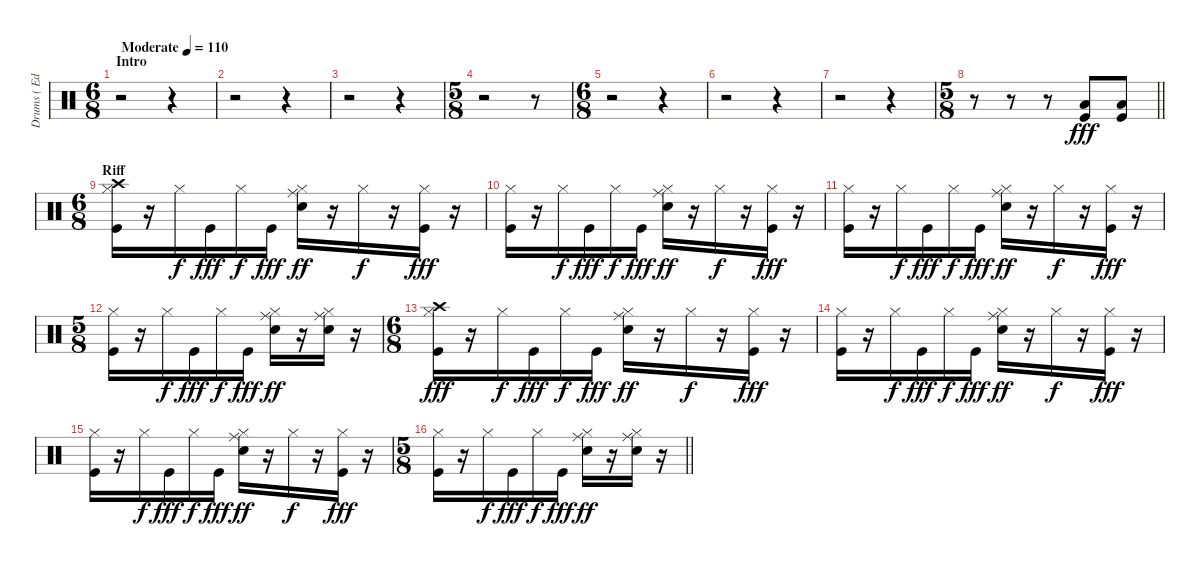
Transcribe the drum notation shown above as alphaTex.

\track ("Drums ( Edward O'Brien )" "Drums ( Ed") {instrument percussion}
\staff {score}
\articulation defaults
\ts (6 8)
\section ("" "Intro")
\tempo (110 "Moderate")
\clef neutral
\ks c
r.2{dy fff} r.4 |
r.2 r.4 |
r.2 r.4 |
\ts (5 8)
r.2 r.8 |
\ts (6 8)
r.2 r.4 |
r.2 r.4 |
r.2 r.4 |
\ts (5 8)
\barLineRight lightlight
r.8 r.8 r.8 ("Low Floor Tom (hit)" "Kick (hit)").8 ("Low Floor Tom (hit)" "Kick (hit)").8 |
\ts (6 8)
\section ("" "Riff")
("Crash high (hit)" "Hi-Hat (closed)" "Kick (hit)").16 r.16 "Hi-Hat (closed)".16{dy f} "Kick (hit)".16{dy fff} "Hi-Hat (closed)".16{dy f} "Kick (hit)".16{dy fff} ("Ride (middle)" "Hi-Hat (closed)" "Electric Snare (hit)").16{dy ff} r.16 "Hi-Hat (closed)".16{dy f} r.16 ("Hi-Hat (closed)" "Kick (hit)").16{dy fff} r.16 |
("Hi-Hat (closed)" "Kick (hit)").16 r.16 "Hi-Hat (closed)".16{dy f} "Kick (hit)".16{dy fff} "Hi-Hat (closed)".16{dy f} "Kick (hit)".16{dy fff} ("Ride (middle)" "Hi-Hat (closed)" "Electric Snare (hit)").16{dy ff} r.16 "Hi-Hat (closed)".16{dy f} r.16 ("Hi-Hat (closed)" "Kick (hit)").16{dy fff} r.16 |
("Hi-Hat (closed)" "Kick (hit)").16 r.16 "Hi-Hat (closed)".16{dy f} "Kick (hit)".16{dy fff} "Hi-Hat (closed)".16{dy f} "Kick (hit)".16{dy fff} ("Ride (middle)" "Hi-Hat (closed)" "Electric Snare (hit)").16{dy ff} r.16 "Hi-Hat (closed)".16{dy f} r.16 ("Hi-Hat (closed)" "Kick (hit)").16{dy fff} r.16 |
\ts (5 8)
("Hi-Hat (closed)" "Kick (hit)").16 r.16 "Hi-Hat (closed)".16{dy f} "Kick (hit)".16{dy fff} "Hi-Hat (closed)".16{dy f} "Kick (hit)".16{dy fff} ("Ride (middle)" "Hi-Hat (closed)" "Electric Snare (hit)").16{dy ff} r.16 ("Ride (middle)" "Hi-Hat (closed)" "Electric Snare (hit)").16 r.16 |
\ts (6 8)
("Crash high (hit)" "Hi-Hat (closed)" "Kick (hit)").16{dy fff} r.16 "Hi-Hat (closed)".16{dy f} "Kick (hit)".16{dy fff} "Hi-Hat (closed)".16{dy f} "Kick (hit)".16{dy fff} ("Ride (middle)" "Hi-Hat (closed)" "Electric Snare (hit)").16{dy ff} r.16 "Hi-Hat (closed)".16{dy f} r.16 ("Hi-Hat (closed)" "Kick (hit)").16{dy fff} r.16 |
("Hi-Hat (closed)" "Kick (hit)").16 r.16 "Hi-Hat (closed)".16{dy f} "Kick (hit)".16{dy fff} "Hi-Hat (closed)".16{dy f} "Kick (hit)".16{dy fff} ("Ride (middle)" "Hi-Hat (closed)" "Electric Snare (hit)").16{dy ff} r.16 "Hi-Hat (closed)".16{dy f} r.16 ("Hi-Hat (closed)" "Kick (hit)").16{dy fff} r.16 |
("Hi-Hat (closed)" "Kick (hit)").16 r.16 "Hi-Hat (closed)".16{dy f} "Kick (hit)".16{dy fff} "Hi-Hat (closed)".16{dy f} "Kick (hit)".16{dy fff} ("Ride (middle)" "Hi-Hat (closed)" "Electric Snare (hit)").16{dy ff} r.16 "Hi-Hat (closed)".16{dy f} r.16 ("Hi-Hat (closed)" "Kick (hit)").16{dy fff} r.16 |
\ts (5 8)
\barLineRight lightlight
("Hi-Hat (closed)" "Kick (hit)").16 r.16 "Hi-Hat (closed)".16{dy f} "Kick (hit)".16{dy fff} "Hi-Hat (closed)".16{dy f} "Kick (hit)".16{dy fff} ("Ride (middle)" "Hi-Hat (closed)" "Electric Snare (hit)").16{dy ff} r.16 ("Ride (middle)" "Hi-Hat (closed)" "Electric Snare (hit)").16 r.16
